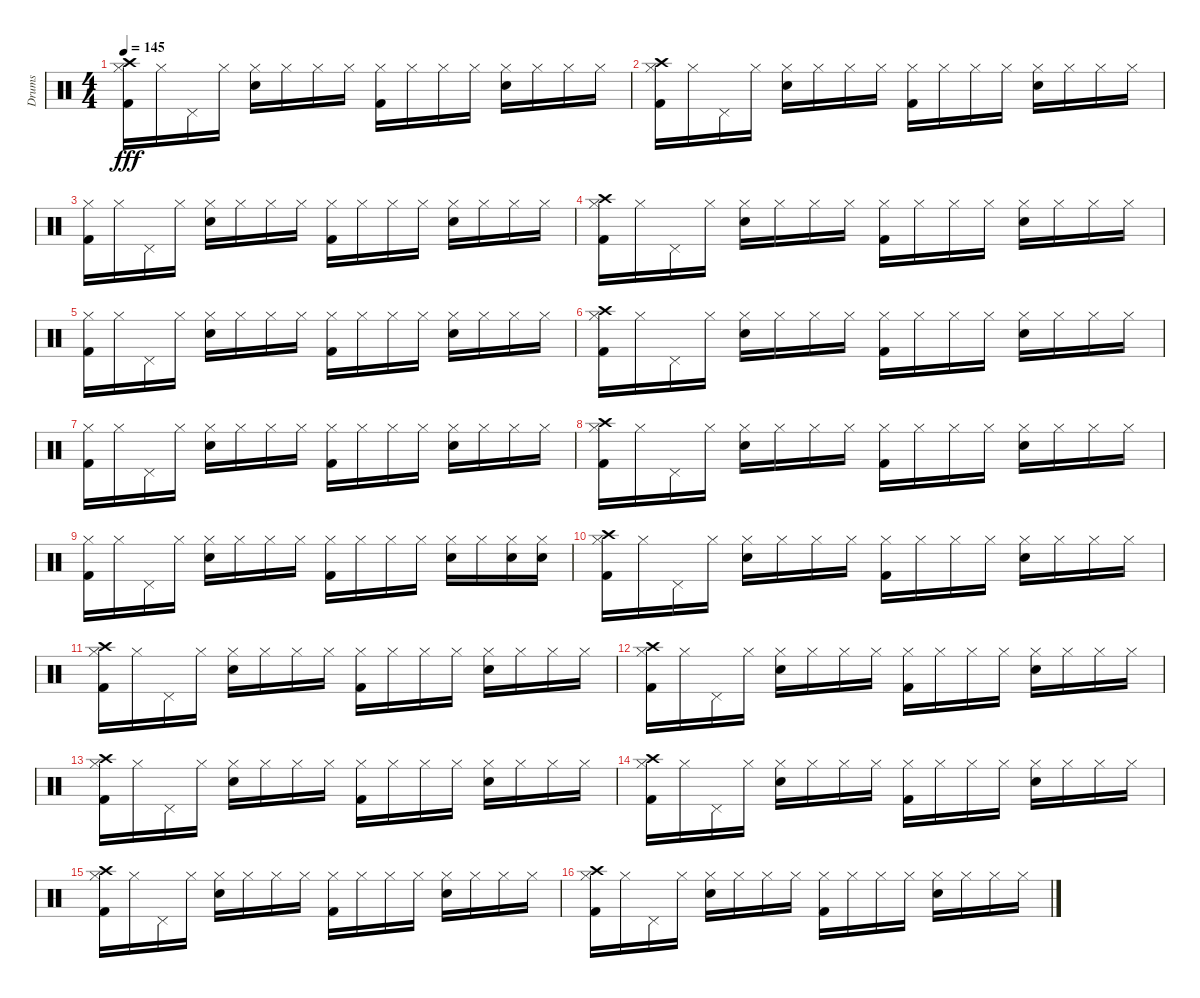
\track ("Drums" "Drums") {instrument percussion}
\staff {score}
\articulation defaults
\ts (4 4)
\tempo 145
\clef neutral
\ks c
("Hi-Hat (closed)" "Kick (hit) 2" "Crash high (hit)").16{dy fff} "Hi-Hat (closed)".16 "Pedal Hi-Hat (hit)".16 "Hi-Hat (closed)".16 ("Hi-Hat (closed)" "Snare (hit) 2").16 "Hi-Hat (closed)".16 "Hi-Hat (closed)".16 "Hi-Hat (closed)".16 ("Hi-Hat (closed)" "Kick (hit) 2").16 "Hi-Hat (closed)".16 "Hi-Hat (closed)".16 "Hi-Hat (closed)".16 ("Hi-Hat (closed)" "Snare (hit) 2").16 "Hi-Hat (closed)".16 "Hi-Hat (closed)".16 "Hi-Hat (closed)".16 |
("Hi-Hat (closed)" "Kick (hit) 2" "Crash high (hit)").16 "Hi-Hat (closed)".16 "Pedal Hi-Hat (hit)".16 "Hi-Hat (closed)".16 ("Hi-Hat (closed)" "Snare (hit) 2").16 "Hi-Hat (closed)".16 "Hi-Hat (closed)".16 "Hi-Hat (closed)".16 ("Hi-Hat (closed)" "Kick (hit) 2").16 "Hi-Hat (closed)".16 "Hi-Hat (closed)".16 "Hi-Hat (closed)".16 ("Hi-Hat (closed)" "Snare (hit) 2").16 "Hi-Hat (closed)".16 "Hi-Hat (closed)".16 "Hi-Hat (closed)".16 |
("Hi-Hat (closed)" "Kick (hit) 2").16 "Hi-Hat (closed)".16 "Pedal Hi-Hat (hit)".16 "Hi-Hat (closed)".16 ("Hi-Hat (closed)" "Snare (hit) 2").16 "Hi-Hat (closed)".16 "Hi-Hat (closed)".16 "Hi-Hat (closed)".16 ("Hi-Hat (closed)" "Kick (hit) 2").16 "Hi-Hat (closed)".16 "Hi-Hat (closed)".16 "Hi-Hat (closed)".16 ("Hi-Hat (closed)" "Snare (hit) 2").16 "Hi-Hat (closed)".16 "Hi-Hat (closed)".16 "Hi-Hat (closed)".16 |
("Hi-Hat (closed)" "Kick (hit) 2" "Crash high (hit)").16 "Hi-Hat (closed)".16 "Pedal Hi-Hat (hit)".16 "Hi-Hat (closed)".16 ("Hi-Hat (closed)" "Snare (hit) 2").16 "Hi-Hat (closed)".16 "Hi-Hat (closed)".16 "Hi-Hat (closed)".16 ("Hi-Hat (closed)" "Kick (hit) 2").16 "Hi-Hat (closed)".16 "Hi-Hat (closed)".16 "Hi-Hat (closed)".16 ("Hi-Hat (closed)" "Snare (hit) 2").16 "Hi-Hat (closed)".16 "Hi-Hat (closed)".16 "Hi-Hat (closed)".16 |
("Hi-Hat (closed)" "Kick (hit) 2").16 "Hi-Hat (closed)".16 "Pedal Hi-Hat (hit)".16 "Hi-Hat (closed)".16 ("Hi-Hat (closed)" "Snare (hit) 2").16 "Hi-Hat (closed)".16 "Hi-Hat (closed)".16 "Hi-Hat (closed)".16 ("Hi-Hat (closed)" "Kick (hit) 2").16 "Hi-Hat (closed)".16 "Hi-Hat (closed)".16 "Hi-Hat (closed)".16 ("Hi-Hat (closed)" "Snare (hit) 2").16 "Hi-Hat (closed)".16 "Hi-Hat (closed)".16 "Hi-Hat (closed)".16 |
("Hi-Hat (closed)" "Kick (hit) 2" "Crash high (hit)").16 "Hi-Hat (closed)".16 "Pedal Hi-Hat (hit)".16 "Hi-Hat (closed)".16 ("Hi-Hat (closed)" "Snare (hit) 2").16 "Hi-Hat (closed)".16 "Hi-Hat (closed)".16 "Hi-Hat (closed)".16 ("Hi-Hat (closed)" "Kick (hit) 2").16 "Hi-Hat (closed)".16 "Hi-Hat (closed)".16 "Hi-Hat (closed)".16 ("Hi-Hat (closed)" "Snare (hit) 2").16 "Hi-Hat (closed)".16 "Hi-Hat (closed)".16 "Hi-Hat (closed)".16 |
("Hi-Hat (closed)" "Kick (hit) 2").16 "Hi-Hat (closed)".16 "Pedal Hi-Hat (hit)".16 "Hi-Hat (closed)".16 ("Hi-Hat (closed)" "Snare (hit) 2").16 "Hi-Hat (closed)".16 "Hi-Hat (closed)".16 "Hi-Hat (closed)".16 ("Hi-Hat (closed)" "Kick (hit) 2").16 "Hi-Hat (closed)".16 "Hi-Hat (closed)".16 "Hi-Hat (closed)".16 ("Hi-Hat (closed)" "Snare (hit) 2").16 "Hi-Hat (closed)".16 "Hi-Hat (closed)".16 "Hi-Hat (closed)".16 |
("Hi-Hat (closed)" "Kick (hit) 2" "Crash high (hit)").16 "Hi-Hat (closed)".16 "Pedal Hi-Hat (hit)".16 "Hi-Hat (closed)".16 ("Hi-Hat (closed)" "Snare (hit) 2").16 "Hi-Hat (closed)".16 "Hi-Hat (closed)".16 "Hi-Hat (closed)".16 ("Hi-Hat (closed)" "Kick (hit) 2").16 "Hi-Hat (closed)".16 "Hi-Hat (closed)".16 "Hi-Hat (closed)".16 ("Hi-Hat (closed)" "Snare (hit) 2").16 "Hi-Hat (closed)".16 "Hi-Hat (closed)".16 "Hi-Hat (closed)".16 |
("Hi-Hat (closed)" "Kick (hit) 2").16 "Hi-Hat (closed)".16 "Pedal Hi-Hat (hit)".16 "Hi-Hat (closed)".16 ("Hi-Hat (closed)" "Snare (hit) 2").16 "Hi-Hat (closed)".16 "Hi-Hat (closed)".16 "Hi-Hat (closed)".16 ("Hi-Hat (closed)" "Kick (hit) 2").16 "Hi-Hat (closed)".16 "Hi-Hat (closed)".16 "Hi-Hat (closed)".16 ("Hi-Hat (closed)" "Snare (hit) 2").16 "Hi-Hat (closed)".16 ("Hi-Hat (closed)" "Snare (hit) 2").16 ("Hi-Hat (closed)" "Snare (hit) 2").16 |
("Hi-Hat (closed)" "Kick (hit) 2" "Crash high (hit)").16 "Hi-Hat (closed)".16 "Pedal Hi-Hat (hit)".16 "Hi-Hat (closed)".16 ("Hi-Hat (closed)" "Snare (hit) 2").16 "Hi-Hat (closed)".16 "Hi-Hat (closed)".16 "Hi-Hat (closed)".16 ("Hi-Hat (closed)" "Kick (hit) 2").16 "Hi-Hat (closed)".16 "Hi-Hat (closed)".16 "Hi-Hat (closed)".16 ("Hi-Hat (closed)" "Snare (hit) 2").16 "Hi-Hat (closed)".16 "Hi-Hat (closed)".16 "Hi-Hat (closed)".16 |
("Hi-Hat (closed)" "Kick (hit) 2" "Crash high (hit)").16 "Hi-Hat (closed)".16 "Pedal Hi-Hat (hit)".16 "Hi-Hat (closed)".16 ("Hi-Hat (closed)" "Snare (hit) 2").16 "Hi-Hat (closed)".16 "Hi-Hat (closed)".16 "Hi-Hat (closed)".16 ("Hi-Hat (closed)" "Kick (hit) 2").16 "Hi-Hat (closed)".16 "Hi-Hat (closed)".16 "Hi-Hat (closed)".16 ("Hi-Hat (closed)" "Snare (hit) 2").16 "Hi-Hat (closed)".16 "Hi-Hat (closed)".16 "Hi-Hat (closed)".16 |
("Hi-Hat (closed)" "Kick (hit) 2" "Crash high (hit)").16 "Hi-Hat (closed)".16 "Pedal Hi-Hat (hit)".16 "Hi-Hat (closed)".16 ("Hi-Hat (closed)" "Snare (hit) 2").16 "Hi-Hat (closed)".16 "Hi-Hat (closed)".16 "Hi-Hat (closed)".16 ("Hi-Hat (closed)" "Kick (hit) 2").16 "Hi-Hat (closed)".16 "Hi-Hat (closed)".16 "Hi-Hat (closed)".16 ("Hi-Hat (closed)" "Snare (hit) 2").16 "Hi-Hat (closed)".16 "Hi-Hat (closed)".16 "Hi-Hat (closed)".16 |
("Hi-Hat (closed)" "Kick (hit) 2" "Crash high (hit)").16 "Hi-Hat (closed)".16 "Pedal Hi-Hat (hit)".16 "Hi-Hat (closed)".16 ("Hi-Hat (closed)" "Snare (hit) 2").16 "Hi-Hat (closed)".16 "Hi-Hat (closed)".16 "Hi-Hat (closed)".16 ("Hi-Hat (closed)" "Kick (hit) 2").16 "Hi-Hat (closed)".16 "Hi-Hat (closed)".16 "Hi-Hat (closed)".16 ("Hi-Hat (closed)" "Snare (hit) 2").16 "Hi-Hat (closed)".16 "Hi-Hat (closed)".16 "Hi-Hat (closed)".16 |
("Hi-Hat (closed)" "Kick (hit) 2" "Crash high (hit)").16 "Hi-Hat (closed)".16 "Pedal Hi-Hat (hit)".16 "Hi-Hat (closed)".16 ("Hi-Hat (closed)" "Snare (hit) 2").16 "Hi-Hat (closed)".16 "Hi-Hat (closed)".16 "Hi-Hat (closed)".16 ("Hi-Hat (closed)" "Kick (hit) 2").16 "Hi-Hat (closed)".16 "Hi-Hat (closed)".16 "Hi-Hat (closed)".16 ("Hi-Hat (closed)" "Snare (hit) 2").16 "Hi-Hat (closed)".16 "Hi-Hat (closed)".16 "Hi-Hat (closed)".16 |
("Hi-Hat (closed)" "Kick (hit) 2" "Crash high (hit)").16 "Hi-Hat (closed)".16 "Pedal Hi-Hat (hit)".16 "Hi-Hat (closed)".16 ("Hi-Hat (closed)" "Snare (hit) 2").16 "Hi-Hat (closed)".16 "Hi-Hat (closed)".16 "Hi-Hat (closed)".16 ("Hi-Hat (closed)" "Kick (hit) 2").16 "Hi-Hat (closed)".16 "Hi-Hat (closed)".16 "Hi-Hat (closed)".16 ("Hi-Hat (closed)" "Snare (hit) 2").16 "Hi-Hat (closed)".16 "Hi-Hat (closed)".16 "Hi-Hat (closed)".16 |
("Hi-Hat (closed)" "Kick (hit) 2" "Crash high (hit)").16 "Hi-Hat (closed)".16 "Pedal Hi-Hat (hit)".16 "Hi-Hat (closed)".16 ("Hi-Hat (closed)" "Snare (hit) 2").16 "Hi-Hat (closed)".16 "Hi-Hat (closed)".16 "Hi-Hat (closed)".16 ("Hi-Hat (closed)" "Kick (hit) 2").16 "Hi-Hat (closed)".16 "Hi-Hat (closed)".16 "Hi-Hat (closed)".16 ("Hi-Hat (closed)" "Snare (hit) 2").16 "Hi-Hat (closed)".16 "Hi-Hat (closed)".16 "Hi-Hat (closed)".16
